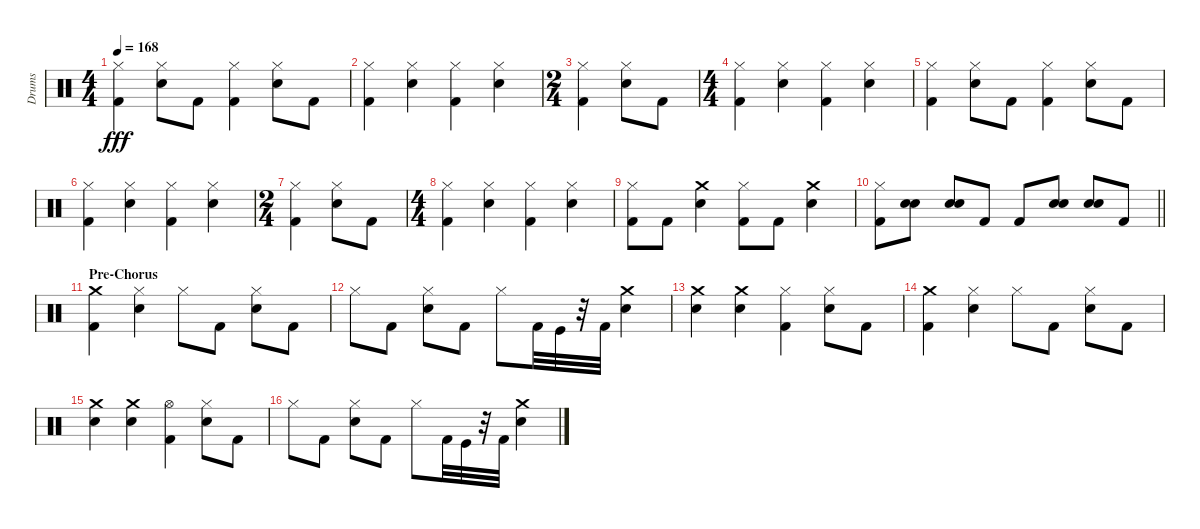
\track ("Drums" "Drums") {instrument percussion}
\staff {score}
\articulation defaults
\ts (4 4)
\tempo 168
\clef neutral
\ks c
("Hi-Hat (closed)" "Kick (hit) 2").4{dy fff} ("Snare (hit) 2" "Hi-Hat (closed)").8 "Kick (hit) 2".8 ("Kick (hit) 2" "Hi-Hat (closed)").4 ("Hi-Hat (closed)" "Snare (hit) 2").8 "Kick (hit) 2".8 |
("Hi-Hat (closed)" "Kick (hit) 2").4 ("Hi-Hat (closed)" "Snare (hit) 2").4 ("Hi-Hat (closed)" "Kick (hit) 2").4 ("Snare (hit) 2" "Hi-Hat (closed)").4 |
\ts (2 4)
("Hi-Hat (closed)" "Kick (hit) 2").4 ("Snare (hit) 2" "Hi-Hat (closed)").8 "Kick (hit) 2".8 |
\ts (4 4)
("Kick (hit) 2" "Hi-Hat (closed)").4 ("Snare (hit) 2" "Hi-Hat (closed)").4 ("Kick (hit) 2" "Hi-Hat (closed)").4 ("Snare (hit) 2" "Hi-Hat (closed)").4 |
("Hi-Hat (closed)" "Kick (hit) 2").4 ("Snare (hit) 2" "Hi-Hat (closed)").8 "Kick (hit) 2".8 ("Kick (hit) 2" "Hi-Hat (closed)").4 ("Hi-Hat (closed)" "Snare (hit) 2").8 "Kick (hit) 2".8 |
("Hi-Hat (closed)" "Kick (hit) 2").4 ("Hi-Hat (closed)" "Snare (hit) 2").4 ("Hi-Hat (closed)" "Kick (hit) 2").4 ("Snare (hit) 2" "Hi-Hat (closed)").4 |
\ts (2 4)
("Hi-Hat (closed)" "Kick (hit) 2").4 ("Snare (hit) 2" "Hi-Hat (closed)").8 "Kick (hit) 2".8 |
\ts (4 4)
("Kick (hit) 2" "Hi-Hat (closed)").4 ("Snare (hit) 2" "Hi-Hat (closed)").4 ("Kick (hit) 2" "Hi-Hat (closed)").4 ("Snare (hit) 2" "Hi-Hat (closed)").4 |
("Kick (hit) 2" "Hi-Hat (closed)").8 "Kick (hit) 2".8 ("Crash medium (hit)" "Snare (hit) 2").4 ("Kick (hit) 2" "Hi-Hat (closed)").8 "Kick (hit) 2".8 ("Crash medium (hit)" "Snare (hit) 2").4 |
\barLineRight lightlight
("Kick (hit) 2" "Hi-Hat (closed)").8 ("Snare (hit) 2" "Snare (hit) 2").8 ("Snare (hit) 2" "Snare (hit) 2").8 "Kick (hit) 2".8 "Kick (hit) 2".8 ("Snare (hit) 2" "Snare (hit) 2").8 ("Snare (hit) 2" "Snare (hit) 2").8 "Kick (hit) 2".8 |
\section ("" "Pre-Chorus")
("Kick (hit) 2" "Crash medium (hit)").4 ("Hi-Hat (closed)" "Snare (hit) 2").4 "Hi-Hat (closed)".8 "Kick (hit) 2".8 ("Snare (hit) 2" "Hi-Hat (closed)").8 "Kick (hit) 2".8 |
"Hi-Hat (closed)".8 "Kick (hit) 2".8 ("Snare (hit) 2" "Hi-Hat (closed)").8 "Kick (hit) 2".8 "Hi-Hat (closed)".8 "Kick (hit) 2".32 "Kick (hit)".32 r.32 "Kick (hit) 2".32 ("Crash medium (hit)" "Snare (hit) 2").4 |
("Crash medium (hit)" "Snare (hit) 2").4 ("Crash medium (hit)" "Snare (hit) 2").4 ("Hi-Hat (closed)" "Kick (hit) 2").4 ("Snare (hit) 2" "Hi-Hat (closed)").8 "Kick (hit) 2".8 |
("Kick (hit) 2" "Crash medium (hit)").4 ("Hi-Hat (closed)" "Snare (hit) 2").4 "Hi-Hat (closed)".8 "Kick (hit) 2".8 ("Snare (hit) 2" "Hi-Hat (closed)").8 "Kick (hit) 2".8 |
("Crash medium (hit)" "Snare (hit) 2").4 ("Crash medium (hit)" "Snare (hit) 2").4 ("Hi-Hat (open)" "Kick (hit) 2").4 ("Snare (hit) 2" "Hi-Hat (closed)").8 "Kick (hit) 2".8 |
"Hi-Hat (closed)".8 "Kick (hit) 2".8 ("Snare (hit) 2" "Hi-Hat (closed)").8 "Kick (hit) 2".8 "Hi-Hat (closed)".8 "Kick (hit) 2".32 "Kick (hit)".32 r.32 "Kick (hit) 2".32 ("Crash medium (hit)" "Snare (hit) 2").4
